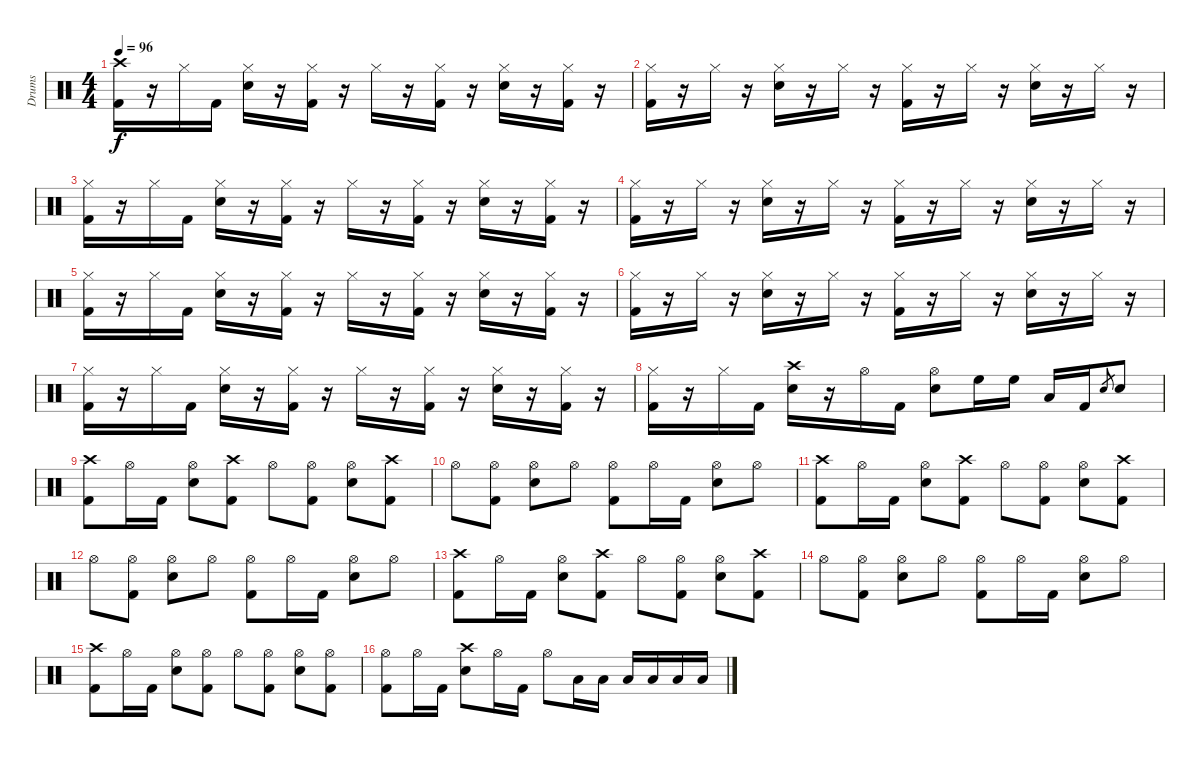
\track ("Drums" "Drums") {instrument percussion}
\staff {score}
\articulation defaults
\ts (4 4)
\tempo 96
\clef neutral
\ks c
("Crash high (hit)" "Kick (hit) 2").16{dy f} r.16 "Hi-Hat (closed)".16 "Kick (hit) 2".16 ("Hi-Hat (closed)" "Snare (hit) 2").16 r.16 ("Hi-Hat (closed)" "Kick (hit) 2").16 r.16 "Hi-Hat (closed)".16 r.16 ("Hi-Hat (closed)" "Kick (hit) 2").16 r.16 ("Hi-Hat (closed)" "Snare (hit) 2").16 r.16 ("Hi-Hat (closed)" "Kick (hit) 2").16 r.16 |
("Hi-Hat (closed)" "Kick (hit) 2").16 r.16 "Hi-Hat (closed)".16 r.16 ("Hi-Hat (closed)" "Snare (hit) 2").16 r.16 "Hi-Hat (closed)".16 r.16 ("Hi-Hat (closed)" "Kick (hit) 2").16 r.16 "Hi-Hat (closed)".16 r.16 ("Hi-Hat (closed)" "Snare (hit) 2").16 r.16 "Hi-Hat (closed)".16 r.16 |
("Hi-Hat (closed)" "Kick (hit) 2").16 r.16 "Hi-Hat (closed)".16 "Kick (hit) 2".16 ("Hi-Hat (closed)" "Snare (hit) 2").16 r.16 ("Hi-Hat (closed)" "Kick (hit) 2").16 r.16 "Hi-Hat (closed)".16 r.16 ("Hi-Hat (closed)" "Kick (hit) 2").16 r.16 ("Hi-Hat (closed)" "Snare (hit) 2").16 r.16 ("Hi-Hat (closed)" "Kick (hit) 2").16 r.16 |
("Hi-Hat (closed)" "Kick (hit) 2").16 r.16 "Hi-Hat (closed)".16 r.16 ("Hi-Hat (closed)" "Snare (hit) 2").16 r.16 "Hi-Hat (closed)".16 r.16 ("Hi-Hat (closed)" "Kick (hit) 2").16 r.16 "Hi-Hat (closed)".16 r.16 ("Hi-Hat (closed)" "Snare (hit) 2").16 r.16 "Hi-Hat (closed)".16 r.16 |
("Hi-Hat (closed)" "Kick (hit) 2").16 r.16 "Hi-Hat (closed)".16 "Kick (hit) 2".16 ("Hi-Hat (closed)" "Snare (hit) 2").16 r.16 ("Hi-Hat (closed)" "Kick (hit) 2").16 r.16 "Hi-Hat (closed)".16 r.16 ("Hi-Hat (closed)" "Kick (hit) 2").16 r.16 ("Hi-Hat (closed)" "Snare (hit) 2").16 r.16 ("Hi-Hat (closed)" "Kick (hit) 2").16 r.16 |
("Hi-Hat (closed)" "Kick (hit) 2").16 r.16 "Hi-Hat (closed)".16 r.16 ("Hi-Hat (closed)" "Snare (hit) 2").16 r.16 "Hi-Hat (closed)".16 r.16 ("Hi-Hat (closed)" "Kick (hit) 2").16 r.16 "Hi-Hat (closed)".16 r.16 ("Hi-Hat (closed)" "Snare (hit) 2").16 r.16 "Hi-Hat (closed)".16 r.16 |
("Hi-Hat (closed)" "Kick (hit) 2").16 r.16 "Hi-Hat (closed)".16 "Kick (hit) 2".16 ("Hi-Hat (closed)" "Snare (hit) 2").16 r.16 ("Hi-Hat (closed)" "Kick (hit) 2").16 r.16 "Hi-Hat (closed)".16 r.16 ("Hi-Hat (closed)" "Kick (hit) 2").16 r.16 ("Hi-Hat (closed)" "Snare (hit) 2").16 r.16 ("Hi-Hat (closed)" "Kick (hit) 2").16 r.16 |
("Hi-Hat (closed)" "Kick (hit) 2").16 r.16 "Hi-Hat (closed)".16 "Kick (hit) 2".16 ("Crash high (hit)" "Snare (hit) 2").16 r.16 "Hi-Hat (open)".16 "Kick (hit) 2".16 ("Hi-Hat (open)" "Snare (hit) 2").8 "High Floor Tom (hit)".16 "High Floor Tom (hit)".16 "Low Tom (hit)".16 "Kick (hit) 2".16 "Snare (hit) 2".8{gr} "Snare (hit) 2".8 |
("Crash high (hit)" "Kick (hit) 2").8 "Hi-Hat (open)".16 "Kick (hit) 2".16 ("Hi-Hat (open)" "Snare (hit) 2").8 ("Crash high (hit)" "Kick (hit) 2").8 "Hi-Hat (open)".8 ("Hi-Hat (open)" "Kick (hit) 2").8 ("Hi-Hat (open)" "Snare (hit) 2").8 ("Crash high (hit)" "Kick (hit) 2").8 |
"Hi-Hat (open)".8 ("Hi-Hat (open)" "Kick (hit) 2").8 ("Hi-Hat (open)" "Snare (hit) 2").8 "Hi-Hat (open)".8 ("Hi-Hat (open)" "Kick (hit) 2").8 "Hi-Hat (open)".16 "Kick (hit) 2".16 ("Hi-Hat (open)" "Snare (hit) 2").8 "Hi-Hat (open)".8 |
("Crash high (hit)" "Kick (hit) 2").8 "Hi-Hat (open)".16 "Kick (hit) 2".16 ("Hi-Hat (open)" "Snare (hit) 2").8 ("Crash high (hit)" "Kick (hit) 2").8 "Hi-Hat (open)".8 ("Hi-Hat (open)" "Kick (hit) 2").8 ("Hi-Hat (open)" "Snare (hit) 2").8 ("Crash high (hit)" "Kick (hit) 2").8 |
"Hi-Hat (open)".8 ("Hi-Hat (open)" "Kick (hit) 2").8 ("Hi-Hat (open)" "Snare (hit) 2").8 "Hi-Hat (open)".8 ("Hi-Hat (open)" "Kick (hit) 2").8 "Hi-Hat (open)".16 "Kick (hit) 2".16 ("Hi-Hat (open)" "Snare (hit) 2").8 "Hi-Hat (open)".8 |
("Crash high (hit)" "Kick (hit) 2").8 "Hi-Hat (open)".16 "Kick (hit) 2".16 ("Hi-Hat (open)" "Snare (hit) 2").8 ("Crash high (hit)" "Kick (hit) 2").8 "Hi-Hat (open)".8 ("Hi-Hat (open)" "Kick (hit) 2").8 ("Hi-Hat (open)" "Snare (hit) 2").8 ("Crash high (hit)" "Kick (hit) 2").8 |
"Hi-Hat (open)".8 ("Hi-Hat (open)" "Kick (hit) 2").8 ("Hi-Hat (open)" "Snare (hit) 2").8 "Hi-Hat (open)".8 ("Hi-Hat (open)" "Kick (hit) 2").8 "Hi-Hat (open)".16 "Kick (hit) 2".16 ("Hi-Hat (open)" "Snare (hit) 2").8 "Hi-Hat (open)".8 |
("Crash high (hit)" "Kick (hit) 2").8 "Hi-Hat (open)".16 "Kick (hit) 2".16 ("Hi-Hat (open)" "Snare (hit) 2").8 ("Hi-Hat (open)" "Kick (hit) 2").8 "Hi-Hat (open)".8 ("Hi-Hat (open)" "Kick (hit) 2").8 ("Hi-Hat (open)" "Snare (hit) 2").8 ("Hi-Hat (open)" "Kick (hit) 2").8 |
("Hi-Hat (open)" "Kick (hit) 2").8 "Hi-Hat (open)".16 "Kick (hit) 2".16 ("Crash high (hit)" "Snare (hit) 2").8 "Hi-Hat (open)".16 "Kick (hit) 2".16 "Hi-Hat (open)".8 "Low Tom (hit)".16 "Low Tom (hit)".16 "Low Tom (hit)".16 "Low Tom (hit)".16 "Low Tom (hit)".16 "Low Tom (hit)".16
